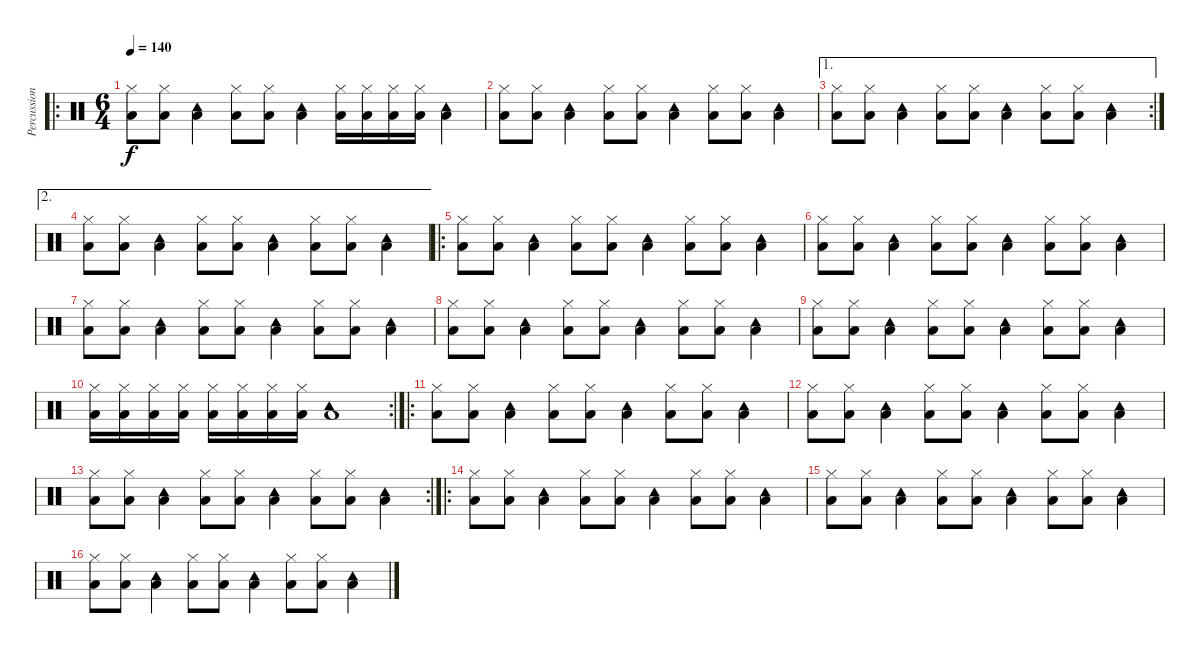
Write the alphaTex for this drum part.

\track ("Percussion" "Percussion") {instrument percussion}
\staff {score}
\articulation defaults
\ro
\ts (6 4)
\tempo 140
\clef neutral
\ks c
("Low Floor Tom (hit)" "Hi-Hat (closed)").8{dy f} ("Low Floor Tom (hit)" "Hi-Hat (closed)").8 ("Low Floor Tom (hit)" "Tambourine (hit)").4 ("Low Floor Tom (hit)" "Hi-Hat (closed)").8 ("Low Floor Tom (hit)" "Hi-Hat (closed)").8 ("Low Floor Tom (hit)" "Tambourine (hit)").4 ("Low Floor Tom (hit)" "Hi-Hat (closed)").16 ("Low Floor Tom (hit)" "Hi-Hat (closed)").16 ("Low Floor Tom (hit)" "Hi-Hat (closed)").16 ("Low Floor Tom (hit)" "Hi-Hat (closed)").16 ("Low Floor Tom (hit)" "Tambourine (hit)").4 |
("Low Floor Tom (hit)" "Hi-Hat (closed)").8 ("Low Floor Tom (hit)" "Hi-Hat (closed)").8 ("Low Floor Tom (hit)" "Tambourine (hit)").4 ("Low Floor Tom (hit)" "Hi-Hat (closed)").8 ("Low Floor Tom (hit)" "Hi-Hat (closed)").8 ("Low Floor Tom (hit)" "Tambourine (hit)").4 ("Low Floor Tom (hit)" "Hi-Hat (closed)").8 ("Low Floor Tom (hit)" "Hi-Hat (closed)").8 ("Low Floor Tom (hit)" "Tambourine (hit)").4 |
\ae 1
\rc 2
("Low Floor Tom (hit)" "Hi-Hat (closed)").8 ("Low Floor Tom (hit)" "Hi-Hat (closed)").8 ("Low Floor Tom (hit)" "Tambourine (hit)").4 ("Low Floor Tom (hit)" "Hi-Hat (closed)").8 ("Low Floor Tom (hit)" "Hi-Hat (closed)").8 ("Low Floor Tom (hit)" "Tambourine (hit)").4 ("Low Floor Tom (hit)" "Hi-Hat (closed)").8 ("Low Floor Tom (hit)" "Hi-Hat (closed)").8 ("Low Floor Tom (hit)" "Tambourine (hit)").4 |
\ae 2
("Low Floor Tom (hit)" "Hi-Hat (closed)").8 ("Low Floor Tom (hit)" "Hi-Hat (closed)").8 ("Low Floor Tom (hit)" "Tambourine (hit)").4 ("Low Floor Tom (hit)" "Hi-Hat (closed)").8 ("Low Floor Tom (hit)" "Hi-Hat (closed)").8 ("Low Floor Tom (hit)" "Tambourine (hit)").4 ("Low Floor Tom (hit)" "Hi-Hat (closed)").8 ("Low Floor Tom (hit)" "Hi-Hat (closed)").8 ("Low Floor Tom (hit)" "Tambourine (hit)").4 |
\ro
("Low Floor Tom (hit)" "Hi-Hat (closed)").8 ("Low Floor Tom (hit)" "Hi-Hat (closed)").8 ("Low Floor Tom (hit)" "Tambourine (hit)").4 ("Low Floor Tom (hit)" "Hi-Hat (closed)").8 ("Low Floor Tom (hit)" "Hi-Hat (closed)").8 ("Low Floor Tom (hit)" "Tambourine (hit)").4 ("Low Floor Tom (hit)" "Hi-Hat (closed)").8 ("Low Floor Tom (hit)" "Hi-Hat (closed)").8 ("Low Floor Tom (hit)" "Tambourine (hit)").4 |
("Low Floor Tom (hit)" "Hi-Hat (closed)").8 ("Low Floor Tom (hit)" "Hi-Hat (closed)").8 ("Low Floor Tom (hit)" "Tambourine (hit)").4 ("Low Floor Tom (hit)" "Hi-Hat (closed)").8 ("Low Floor Tom (hit)" "Hi-Hat (closed)").8 ("Low Floor Tom (hit)" "Tambourine (hit)").4 ("Low Floor Tom (hit)" "Hi-Hat (closed)").8 ("Low Floor Tom (hit)" "Hi-Hat (closed)").8 ("Low Floor Tom (hit)" "Tambourine (hit)").4 |
("Low Floor Tom (hit)" "Hi-Hat (closed)").8 ("Low Floor Tom (hit)" "Hi-Hat (closed)").8 ("Low Floor Tom (hit)" "Tambourine (hit)").4 ("Low Floor Tom (hit)" "Hi-Hat (closed)").8 ("Low Floor Tom (hit)" "Hi-Hat (closed)").8 ("Low Floor Tom (hit)" "Tambourine (hit)").4 ("Low Floor Tom (hit)" "Hi-Hat (closed)").8 ("Low Floor Tom (hit)" "Hi-Hat (closed)").8 ("Low Floor Tom (hit)" "Tambourine (hit)").4 |
("Low Floor Tom (hit)" "Hi-Hat (closed)").8 ("Low Floor Tom (hit)" "Hi-Hat (closed)").8 ("Low Floor Tom (hit)" "Tambourine (hit)").4 ("Low Floor Tom (hit)" "Hi-Hat (closed)").8 ("Low Floor Tom (hit)" "Hi-Hat (closed)").8 ("Low Floor Tom (hit)" "Tambourine (hit)").4 ("Low Floor Tom (hit)" "Hi-Hat (closed)").8 ("Low Floor Tom (hit)" "Hi-Hat (closed)").8 ("Low Floor Tom (hit)" "Tambourine (hit)").4 |
("Low Floor Tom (hit)" "Hi-Hat (closed)").8 ("Low Floor Tom (hit)" "Hi-Hat (closed)").8 ("Low Floor Tom (hit)" "Tambourine (hit)").4 ("Low Floor Tom (hit)" "Hi-Hat (closed)").8 ("Low Floor Tom (hit)" "Hi-Hat (closed)").8 ("Low Floor Tom (hit)" "Tambourine (hit)").4 ("Low Floor Tom (hit)" "Hi-Hat (closed)").8 ("Low Floor Tom (hit)" "Hi-Hat (closed)").8 ("Low Floor Tom (hit)" "Tambourine (hit)").4 |
\rc 2
("Low Floor Tom (hit)" "Hi-Hat (closed)").16 ("Low Floor Tom (hit)" "Hi-Hat (closed)").16 ("Low Floor Tom (hit)" "Hi-Hat (closed)").16 ("Low Floor Tom (hit)" "Hi-Hat (closed)").16 ("Low Floor Tom (hit)" "Hi-Hat (closed)").16 ("Low Floor Tom (hit)" "Hi-Hat (closed)").16 ("Low Floor Tom (hit)" "Hi-Hat (closed)").16 ("Low Floor Tom (hit)" "Hi-Hat (closed)").16 ("Low Floor Tom (hit)" "Tambourine (hit)").1 |
\ro
("Low Floor Tom (hit)" "Hi-Hat (closed)").8 ("Low Floor Tom (hit)" "Hi-Hat (closed)").8 ("Low Floor Tom (hit)" "Tambourine (hit)").4 ("Low Floor Tom (hit)" "Hi-Hat (closed)").8 ("Low Floor Tom (hit)" "Hi-Hat (closed)").8 ("Low Floor Tom (hit)" "Tambourine (hit)").4 ("Low Floor Tom (hit)" "Hi-Hat (closed)").8 ("Low Floor Tom (hit)" "Hi-Hat (closed)").8 ("Low Floor Tom (hit)" "Tambourine (hit)").4 |
("Low Floor Tom (hit)" "Hi-Hat (closed)").8 ("Low Floor Tom (hit)" "Hi-Hat (closed)").8 ("Low Floor Tom (hit)" "Tambourine (hit)").4 ("Low Floor Tom (hit)" "Hi-Hat (closed)").8 ("Low Floor Tom (hit)" "Hi-Hat (closed)").8 ("Low Floor Tom (hit)" "Tambourine (hit)").4 ("Low Floor Tom (hit)" "Hi-Hat (closed)").8 ("Low Floor Tom (hit)" "Hi-Hat (closed)").8 ("Low Floor Tom (hit)" "Tambourine (hit)").4 |
\rc 2
("Low Floor Tom (hit)" "Hi-Hat (closed)").8 ("Low Floor Tom (hit)" "Hi-Hat (closed)").8 ("Low Floor Tom (hit)" "Tambourine (hit)").4 ("Low Floor Tom (hit)" "Hi-Hat (closed)").8 ("Low Floor Tom (hit)" "Hi-Hat (closed)").8 ("Low Floor Tom (hit)" "Tambourine (hit)").4 ("Low Floor Tom (hit)" "Hi-Hat (closed)").8 ("Low Floor Tom (hit)" "Hi-Hat (closed)").8 ("Low Floor Tom (hit)" "Tambourine (hit)").4 |
\ro
("Low Floor Tom (hit)" "Hi-Hat (closed)").8 ("Low Floor Tom (hit)" "Hi-Hat (closed)").8 ("Low Floor Tom (hit)" "Tambourine (hit)").4 ("Low Floor Tom (hit)" "Hi-Hat (closed)").8 ("Low Floor Tom (hit)" "Hi-Hat (closed)").8 ("Low Floor Tom (hit)" "Tambourine (hit)").4 ("Low Floor Tom (hit)" "Hi-Hat (closed)").8 ("Low Floor Tom (hit)" "Hi-Hat (closed)").8 ("Low Floor Tom (hit)" "Tambourine (hit)").4 |
("Low Floor Tom (hit)" "Hi-Hat (closed)").8 ("Low Floor Tom (hit)" "Hi-Hat (closed)").8 ("Low Floor Tom (hit)" "Tambourine (hit)").4 ("Low Floor Tom (hit)" "Hi-Hat (closed)").8 ("Low Floor Tom (hit)" "Hi-Hat (closed)").8 ("Low Floor Tom (hit)" "Tambourine (hit)").4 ("Low Floor Tom (hit)" "Hi-Hat (closed)").8 ("Low Floor Tom (hit)" "Hi-Hat (closed)").8 ("Low Floor Tom (hit)" "Tambourine (hit)").4 |
("Low Floor Tom (hit)" "Hi-Hat (closed)").8 ("Low Floor Tom (hit)" "Hi-Hat (closed)").8 ("Low Floor Tom (hit)" "Tambourine (hit)").4 ("Low Floor Tom (hit)" "Hi-Hat (closed)").8 ("Low Floor Tom (hit)" "Hi-Hat (closed)").8 ("Low Floor Tom (hit)" "Tambourine (hit)").4 ("Low Floor Tom (hit)" "Hi-Hat (closed)").8 ("Low Floor Tom (hit)" "Hi-Hat (closed)").8 ("Low Floor Tom (hit)" "Tambourine (hit)").4
